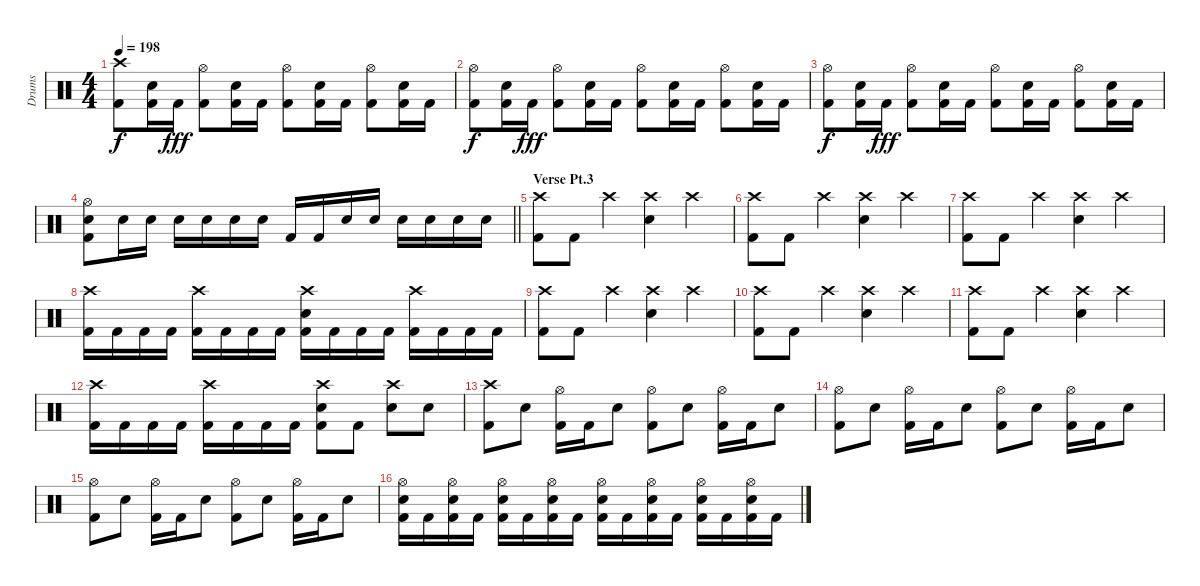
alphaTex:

\track ("Drums" "Drums") {instrument percussion}
\staff {score}
\articulation defaults
\ts (4 4)
\tempo 198
\clef neutral
\ks c
("Crash high (hit)" "Kick (hit) 2").8{dy f} ("Electric Snare (hit)" "Kick (hit) 2").16 "Kick (hit) 2".16{dy fff} ("Hi-Hat (open)" "Kick (hit) 2").8 ("Electric Snare (hit)" "Kick (hit) 2").16 "Kick (hit) 2".16 ("Hi-Hat (open)" "Kick (hit) 2").8 ("Electric Snare (hit)" "Kick (hit) 2").16 "Kick (hit) 2".16 ("Hi-Hat (open)" "Kick (hit) 2").8 ("Electric Snare (hit)" "Kick (hit) 2").16 "Kick (hit) 2".16 |
("Hi-Hat (open)" "Kick (hit) 2").8{dy f} ("Electric Snare (hit)" "Kick (hit) 2").16 "Kick (hit) 2".16{dy fff} ("Hi-Hat (open)" "Kick (hit) 2").8 ("Electric Snare (hit)" "Kick (hit) 2").16 "Kick (hit) 2".16 ("Hi-Hat (open)" "Kick (hit) 2").8 ("Electric Snare (hit)" "Kick (hit) 2").16 "Kick (hit) 2".16 ("Hi-Hat (open)" "Kick (hit) 2").8 ("Electric Snare (hit)" "Kick (hit) 2").16 "Kick (hit) 2".16 |
("Hi-Hat (open)" "Kick (hit) 2").8{dy f} ("Electric Snare (hit)" "Kick (hit) 2").16 "Kick (hit) 2".16{dy fff} ("Hi-Hat (open)" "Kick (hit) 2").8 ("Electric Snare (hit)" "Kick (hit) 2").16 "Kick (hit) 2".16 ("Hi-Hat (open)" "Kick (hit) 2").8 ("Electric Snare (hit)" "Kick (hit) 2").16 "Kick (hit) 2".16 ("Hi-Hat (open)" "Kick (hit) 2").8 ("Electric Snare (hit)" "Kick (hit) 2").16 "Kick (hit) 2".16 |
\barLineRight lightlight
("Hi-Hat (open)" "Electric Snare (hit)" "Kick (hit) 2").8 "Electric Snare (hit)".16 "Electric Snare (hit)".16 "Electric Snare (hit)".16 "Electric Snare (hit)".16 "Electric Snare (hit)".16 "Electric Snare (hit)".16 "Kick (hit) 2".16 "Kick (hit) 2".16 "Electric Snare (hit)".16 "Electric Snare (hit)".16 "Electric Snare (hit)".16 "Electric Snare (hit)".16 "Electric Snare (hit)".16 "Electric Snare (hit)".16 |
\section ("" "Verse Pt.3")
("Crash high (hit)" "Kick (hit) 2").8 "Kick (hit) 2".8 "Crash high (hit)".4 ("Crash high (hit)" "Electric Snare (hit)").4 "Crash high (hit)".4 |
("Crash high (hit)" "Kick (hit) 2").8 "Kick (hit) 2".8 "Crash high (hit)".4 ("Crash high (hit)" "Electric Snare (hit)").4 "Crash high (hit)".4 |
("Crash high (hit)" "Kick (hit) 2").8 "Kick (hit) 2".8 "Crash high (hit)".4 ("Crash high (hit)" "Electric Snare (hit)").4 "Crash high (hit)".4 |
("Crash high (hit)" "Kick (hit) 2").16 "Kick (hit) 2".16 "Kick (hit) 2".16 "Kick (hit) 2".16 ("Crash high (hit)" "Kick (hit) 2").16 "Kick (hit) 2".16 "Kick (hit) 2".16 "Kick (hit) 2".16 ("Crash high (hit)" "Electric Snare (hit)" "Kick (hit) 2").16 "Kick (hit) 2".16 "Kick (hit) 2".16 "Kick (hit) 2".16 ("Crash high (hit)" "Kick (hit) 2").16 "Kick (hit) 2".16 "Kick (hit) 2".16 "Kick (hit) 2".16 |
("Crash high (hit)" "Kick (hit) 2").8 "Kick (hit) 2".8 "Crash high (hit)".4 ("Crash high (hit)" "Electric Snare (hit)").4 "Crash high (hit)".4 |
("Crash high (hit)" "Kick (hit) 2").8 "Kick (hit) 2".8 "Crash high (hit)".4 ("Crash high (hit)" "Electric Snare (hit)").4 "Crash high (hit)".4 |
("Crash high (hit)" "Kick (hit) 2").8 "Kick (hit) 2".8 "Crash high (hit)".4 ("Crash high (hit)" "Electric Snare (hit)").4 "Crash high (hit)".4 |
("Crash high (hit)" "Kick (hit) 2").16 "Kick (hit) 2".16 "Kick (hit) 2".16 "Kick (hit) 2".16 ("Crash high (hit)" "Kick (hit) 2").16 "Kick (hit) 2".16 "Kick (hit) 2".16 "Kick (hit) 2".16 ("Crash high (hit)" "Electric Snare (hit)" "Kick (hit) 2").8 "Kick (hit) 2".8 ("Crash high (hit)" "Electric Snare (hit)").8 "Electric Snare (hit)".8 |
("Crash high (hit)" "Kick (hit) 2").8 "Electric Snare (hit)".8 ("Hi-Hat (open)" "Kick (hit) 2").16 "Kick (hit) 2".16 "Electric Snare (hit)".8 ("Hi-Hat (open)" "Kick (hit) 2").8 "Electric Snare (hit)".8 ("Hi-Hat (open)" "Kick (hit) 2").16 "Kick (hit) 2".16 "Electric Snare (hit)".8 |
("Hi-Hat (open)" "Kick (hit) 2").8 "Electric Snare (hit)".8 ("Hi-Hat (open)" "Kick (hit) 2").16 "Kick (hit) 2".16 "Electric Snare (hit)".8 ("Hi-Hat (open)" "Kick (hit) 2").8 "Electric Snare (hit)".8 ("Hi-Hat (open)" "Kick (hit) 2").16 "Kick (hit) 2".16 "Electric Snare (hit)".8 |
("Hi-Hat (open)" "Kick (hit) 2").8 "Electric Snare (hit)".8 ("Hi-Hat (open)" "Kick (hit) 2").16 "Kick (hit) 2".16 "Electric Snare (hit)".8 ("Hi-Hat (open)" "Kick (hit) 2").8 "Electric Snare (hit)".8 ("Hi-Hat (open)" "Kick (hit) 2").16 "Kick (hit) 2".16 "Electric Snare (hit)".8 |
("Hi-Hat (open)" "Electric Snare (hit)" "Kick (hit) 2").16 "Kick (hit) 2".16 ("Hi-Hat (open)" "Electric Snare (hit)" "Kick (hit) 2").16 "Kick (hit) 2".16 ("Hi-Hat (open)" "Electric Snare (hit)" "Kick (hit) 2").16 "Kick (hit) 2".16 ("Hi-Hat (open)" "Electric Snare (hit)" "Kick (hit) 2").16 "Kick (hit) 2".16 ("Hi-Hat (open)" "Electric Snare (hit)" "Kick (hit) 2").16 "Kick (hit) 2".16 ("Hi-Hat (open)" "Electric Snare (hit)" "Kick (hit) 2").16 "Kick (hit) 2".16 ("Hi-Hat (open)" "Electric Snare (hit)" "Kick (hit) 2").16 "Kick (hit) 2".16 ("Hi-Hat (open)" "Electric Snare (hit)" "Kick (hit) 2").16 "Kick (hit) 2".16
